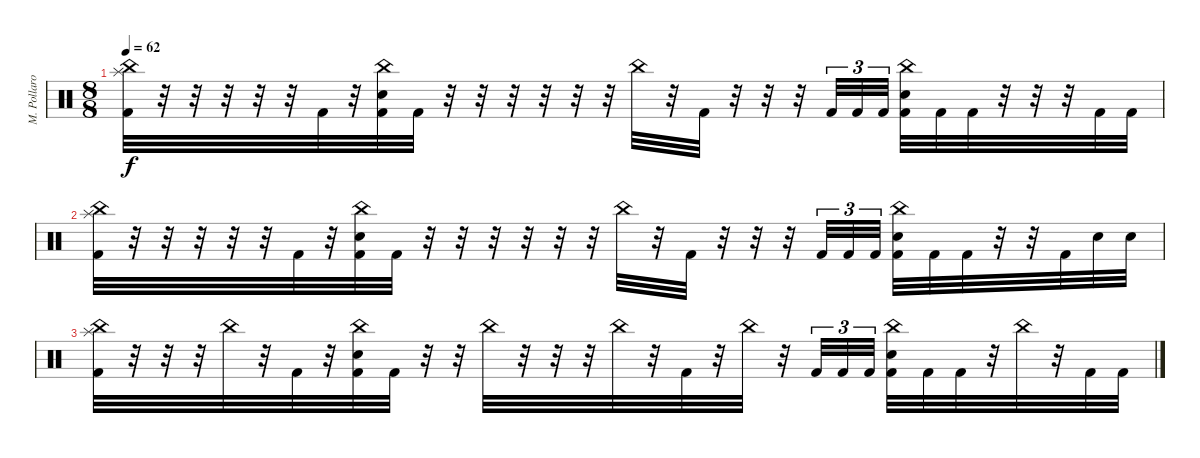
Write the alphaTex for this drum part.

\track ("M. Pollaro" "M. Pollaro") {instrument percussion}
\staff {score}
\articulation defaults
\ts (8 8)
\tempo 62
\clef neutral
\ks aminor
("Splash (hit)" "China (hit)" "Kick (hit) 2").32{dy f} r.32 r.32 r.32 r.32 r.32 "Kick (hit) 2".32 r.32 ("China (hit)" "Snare (hit) 2" "Kick (hit) 2").32 "Kick (hit) 2".32 r.32 r.32 r.32 r.32 r.32 r.32 "China (hit)".32 r.32 "Kick (hit) 2".32 r.32 r.32 r.32 "Kick (hit) 2".32{tu (3 2)} "Kick (hit) 2".32{tu (3 2)} "Kick (hit) 2".32{tu (3 2)} ("China (hit)" "Snare (hit) 2" "Kick (hit) 2").32 "Kick (hit) 2".32 "Kick (hit) 2".32 r.32 r.32 r.32 "Kick (hit) 2".32 "Kick (hit) 2".32 |
("Splash (hit)" "China (hit)" "Kick (hit) 2").32 r.32 r.32 r.32 r.32 r.32 "Kick (hit) 2".32 r.32 ("China (hit)" "Snare (hit) 2" "Kick (hit) 2").32 "Kick (hit) 2".32 r.32 r.32 r.32 r.32 r.32 r.32 "China (hit)".32 r.32 "Kick (hit) 2".32 r.32 r.32 r.32 "Kick (hit) 2".32{tu (3 2)} "Kick (hit) 2".32{tu (3 2)} "Kick (hit) 2".32{tu (3 2)} ("China (hit)" "Snare (hit) 2" "Kick (hit) 2").32 "Kick (hit) 2".32 "Kick (hit) 2".32 r.32 r.32 "Kick (hit) 2".32 "Snare (hit) 2".32 "Snare (hit) 2".32 |
("Splash (hit)" "China (hit)" "Kick (hit) 2").32 r.32 r.32 r.32 "China (hit)".32 r.32 "Kick (hit) 2".32 r.32 ("China (hit)" "Snare (hit) 2" "Kick (hit) 2").32 "Kick (hit) 2".32 r.32 r.32 "China (hit)".32 r.32 r.32 r.32 "China (hit)".32 r.32 "Kick (hit) 2".32 r.32 "China (hit)".32 r.32 "Kick (hit) 2".32{tu (3 2)} "Kick (hit) 2".32{tu (3 2)} "Kick (hit) 2".32{tu (3 2)} ("China (hit)" "Snare (hit) 2" "Kick (hit) 2").32 "Kick (hit) 2".32 "Kick (hit) 2".32 r.32 "China (hit)".32 r.32 "Kick (hit) 2".32 "Kick (hit) 2".32
